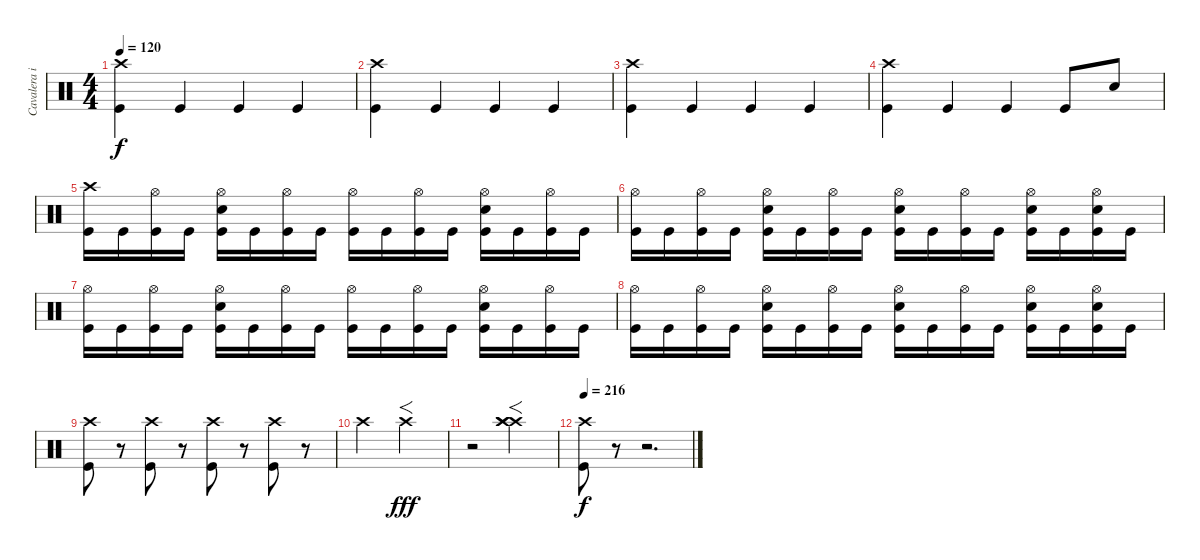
\track ("Cavalera igor" "Cavalera i") {instrument percussion}
\staff {score}
\articulation defaults
\ts (4 4)
\tempo 120
\clef neutral
\ks c
("Crash high (hit)" "Kick (hit)").4{dy f} "Kick (hit)".4 "Kick (hit)".4 "Kick (hit)".4 |
("Crash high (hit)" "Kick (hit)").4 "Kick (hit)".4 "Kick (hit)".4 "Kick (hit)".4 |
("Crash high (hit)" "Kick (hit)").4 "Kick (hit)".4 "Kick (hit)".4 "Kick (hit)".4 |
("Crash high (hit)" "Kick (hit)").4 "Kick (hit)".4 "Kick (hit)".4 "Kick (hit)".8 "Electric Snare (hit)".8 |
("Crash high (hit)" "Kick (hit)").16 "Kick (hit)".16 ("Hi-Hat (open)" "Kick (hit)").16 "Kick (hit)".16 ("Hi-Hat (open)" "Electric Snare (hit)" "Kick (hit)").16 "Kick (hit)".16 ("Hi-Hat (open)" "Kick (hit)").16 "Kick (hit)".16 ("Hi-Hat (open)" "Kick (hit)").16 "Kick (hit)".16 ("Hi-Hat (open)" "Kick (hit)").16 "Kick (hit)".16 ("Hi-Hat (open)" "Electric Snare (hit)" "Kick (hit)").16 "Kick (hit)".16 ("Hi-Hat (open)" "Kick (hit)").16 "Kick (hit)".16 |
("Hi-Hat (open)" "Kick (hit)").16 "Kick (hit)".16 ("Hi-Hat (open)" "Kick (hit)").16 "Kick (hit)".16 ("Hi-Hat (open)" "Electric Snare (hit)" "Kick (hit)").16 "Kick (hit)".16 ("Hi-Hat (open)" "Kick (hit)").16 "Kick (hit)".16 ("Hi-Hat (open)" "Electric Snare (hit)" "Kick (hit)").16 "Kick (hit)".16 ("Hi-Hat (open)" "Kick (hit)").16 "Kick (hit)".16 ("Hi-Hat (open)" "Electric Snare (hit)" "Kick (hit)").16 "Kick (hit)".16 ("Hi-Hat (open)" "Electric Snare (hit)" "Kick (hit)").16 "Kick (hit)".16 |
("Hi-Hat (open)" "Kick (hit)").16 "Kick (hit)".16 ("Hi-Hat (open)" "Kick (hit)").16 "Kick (hit)".16 ("Hi-Hat (open)" "Electric Snare (hit)" "Kick (hit)").16 "Kick (hit)".16 ("Hi-Hat (open)" "Kick (hit)").16 "Kick (hit)".16 ("Hi-Hat (open)" "Kick (hit)").16 "Kick (hit)".16 ("Hi-Hat (open)" "Kick (hit)").16 "Kick (hit)".16 ("Hi-Hat (open)" "Electric Snare (hit)" "Kick (hit)").16 "Kick (hit)".16 ("Hi-Hat (open)" "Kick (hit)").16 "Kick (hit)".16 |
("Hi-Hat (open)" "Kick (hit)").16 "Kick (hit)".16 ("Hi-Hat (open)" "Kick (hit)").16 "Kick (hit)".16 ("Hi-Hat (open)" "Electric Snare (hit)" "Kick (hit)").16 "Kick (hit)".16 ("Hi-Hat (open)" "Kick (hit)").16 "Kick (hit)".16 ("Hi-Hat (open)" "Electric Snare (hit)" "Kick (hit)").16 "Kick (hit)".16 ("Hi-Hat (open)" "Kick (hit)").16 "Kick (hit)".16 ("Hi-Hat (open)" "Electric Snare (hit)" "Kick (hit)").16 "Kick (hit)".16 ("Hi-Hat (open)" "Electric Snare (hit)" "Kick (hit)").16 "Kick (hit)".16 |
("Crash high (hit)" "Kick (hit)").8 r.8 ("Crash high (hit)" "Kick (hit)").8 r.8 ("Crash high (hit)" "Kick (hit)").8 r.8 ("Crash high (hit)" "Kick (hit)").8 r.8 |
"Crash high (hit)".2 "Crash high (hit)".2{f dy fff} |
r.2 ("Crash high (hit)" "Crash high (hit)" "Crash high (hit)").2{f} |
\tempo 216
("Crash high (hit)" "Kick (hit)").8{dy f} r.8{volume 0} r.2{d}
